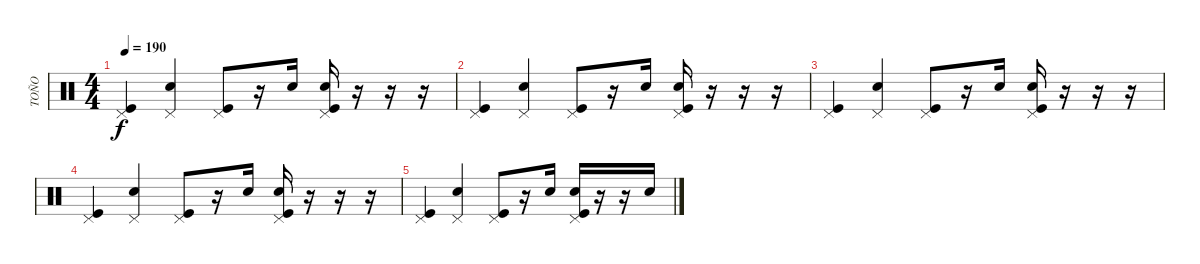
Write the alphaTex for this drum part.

\track ("TOÑO" "TOÑO") {instrument percussion}
\staff {score}
\articulation defaults
\ts (4 4)
\tempo 190
\clef neutral
\ks c
("Pedal Hi-Hat (hit)" "Kick (hit)").4{dy f} ("Pedal Hi-Hat (hit)" "Snare (hit) 2").4 ("Pedal Hi-Hat (hit)" "Kick (hit)").8 r.16 "Snare (hit) 2".16 ("Pedal Hi-Hat (hit)" "Snare (hit) 2" "Kick (hit)").16 r.16 r.16 r.16 |
("Pedal Hi-Hat (hit)" "Kick (hit)").4 ("Pedal Hi-Hat (hit)" "Snare (hit) 2").4 ("Pedal Hi-Hat (hit)" "Kick (hit)").8 r.16 "Snare (hit) 2".16 ("Pedal Hi-Hat (hit)" "Snare (hit) 2" "Kick (hit)").16 r.16 r.16 r.16 |
("Pedal Hi-Hat (hit)" "Kick (hit)").4 ("Pedal Hi-Hat (hit)" "Snare (hit) 2").4 ("Pedal Hi-Hat (hit)" "Kick (hit)").8 r.16 "Snare (hit) 2".16 ("Pedal Hi-Hat (hit)" "Snare (hit) 2" "Kick (hit)").16 r.16 r.16 r.16 |
("Pedal Hi-Hat (hit)" "Kick (hit)").4 ("Pedal Hi-Hat (hit)" "Snare (hit) 2").4 ("Pedal Hi-Hat (hit)" "Kick (hit)").8 r.16 "Snare (hit) 2".16 ("Pedal Hi-Hat (hit)" "Snare (hit) 2" "Kick (hit)").16 r.16 r.16 r.16 |
("Pedal Hi-Hat (hit)" "Kick (hit)").4 ("Pedal Hi-Hat (hit)" "Snare (hit) 2").4 ("Pedal Hi-Hat (hit)" "Kick (hit)").8 r.16 "Snare (hit) 2".16 ("Pedal Hi-Hat (hit)" "Snare (hit) 2" "Kick (hit)").16 r.16 r.16 "Snare (hit) 2".16
